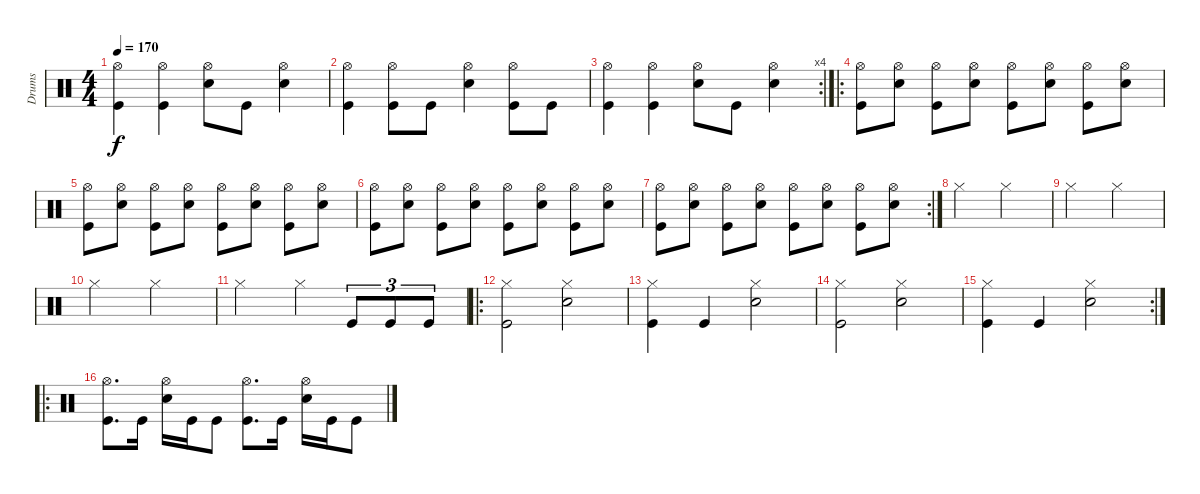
\track ("Drums" "Drums") {instrument percussion}
\staff {score}
\articulation defaults
\ts (4 4)
\tempo 170
\clef neutral
\ks c
("Hi-Hat (open)" "Kick (hit)").4{dy f} ("Hi-Hat (open)" "Kick (hit)").4 ("Hi-Hat (open)" "Snare (hit) 2").8 "Kick (hit)".8 ("Hi-Hat (open)" "Snare (hit) 2").4 |
("Hi-Hat (open)" "Kick (hit)").4 ("Hi-Hat (open)" "Kick (hit)").8 "Kick (hit)".8 ("Hi-Hat (open)" "Snare (hit) 2").4 ("Hi-Hat (open)" "Kick (hit)").8 "Kick (hit)".8 |
\rc 4
("Hi-Hat (open)" "Kick (hit)").4 ("Hi-Hat (open)" "Kick (hit)").4 ("Hi-Hat (open)" "Snare (hit) 2").8 "Kick (hit)".8 ("Hi-Hat (open)" "Snare (hit) 2").4 |
\ro
("Hi-Hat (open)" "Kick (hit)").8 ("Hi-Hat (open)" "Snare (hit) 2").8 ("Hi-Hat (open)" "Kick (hit)").8 ("Hi-Hat (open)" "Snare (hit) 2").8 ("Hi-Hat (open)" "Kick (hit)").8 ("Hi-Hat (open)" "Snare (hit) 2").8 ("Hi-Hat (open)" "Kick (hit)").8 ("Hi-Hat (open)" "Snare (hit) 2").8 |
("Hi-Hat (open)" "Kick (hit)").8 ("Hi-Hat (open)" "Snare (hit) 2").8 ("Hi-Hat (open)" "Kick (hit)").8 ("Hi-Hat (open)" "Snare (hit) 2").8 ("Hi-Hat (open)" "Kick (hit)").8 ("Hi-Hat (open)" "Snare (hit) 2").8 ("Hi-Hat (open)" "Kick (hit)").8 ("Hi-Hat (open)" "Snare (hit) 2").8 |
("Hi-Hat (open)" "Kick (hit)").8 ("Hi-Hat (open)" "Snare (hit) 2").8 ("Hi-Hat (open)" "Kick (hit)").8 ("Hi-Hat (open)" "Snare (hit) 2").8 ("Hi-Hat (open)" "Kick (hit)").8 ("Hi-Hat (open)" "Snare (hit) 2").8 ("Hi-Hat (open)" "Kick (hit)").8 ("Hi-Hat (open)" "Snare (hit) 2").8 |
\rc 2
("Hi-Hat (open)" "Kick (hit)").8 ("Hi-Hat (open)" "Snare (hit) 2").8 ("Hi-Hat (open)" "Kick (hit)").8 ("Hi-Hat (open)" "Snare (hit) 2").8 ("Hi-Hat (open)" "Kick (hit)").8 ("Hi-Hat (open)" "Snare (hit) 2").8 ("Hi-Hat (open)" "Kick (hit)").8 ("Hi-Hat (open)" "Snare (hit) 2").8 |
"Hi-Hat (closed)".2 "Hi-Hat (closed)".2 |
"Hi-Hat (closed)".2 "Hi-Hat (closed)".2 |
"Hi-Hat (closed)".2 "Hi-Hat (closed)".2 |
"Hi-Hat (closed)".2 "Hi-Hat (closed)".4 "Kick (hit)".8{tu (3 2)} "Kick (hit)".8{tu (3 2)} "Kick (hit)".8{tu (3 2)} |
\ro
("Hi-Hat (closed)" "Kick (hit)").2 ("Hi-Hat (closed)" "Snare (hit) 2").2 |
("Hi-Hat (closed)" "Kick (hit)").4 "Kick (hit)".4 ("Hi-Hat (closed)" "Snare (hit) 2").2 |
("Hi-Hat (closed)" "Kick (hit)").2 ("Hi-Hat (closed)" "Snare (hit) 2").2 |
\rc 2
("Hi-Hat (closed)" "Kick (hit)").4 "Kick (hit)".4 ("Hi-Hat (closed)" "Snare (hit) 2").2 |
\ro
("Hi-Hat (open)" "Kick (hit)").8{d} "Kick (hit)".16 ("Hi-Hat (open)" "Snare (hit) 2").16 "Kick (hit)".16 "Kick (hit)".8 ("Hi-Hat (open)" "Kick (hit)").8{d} "Kick (hit)".16 ("Hi-Hat (open)" "Snare (hit) 2").16 "Kick (hit)".16 "Kick (hit)".8
